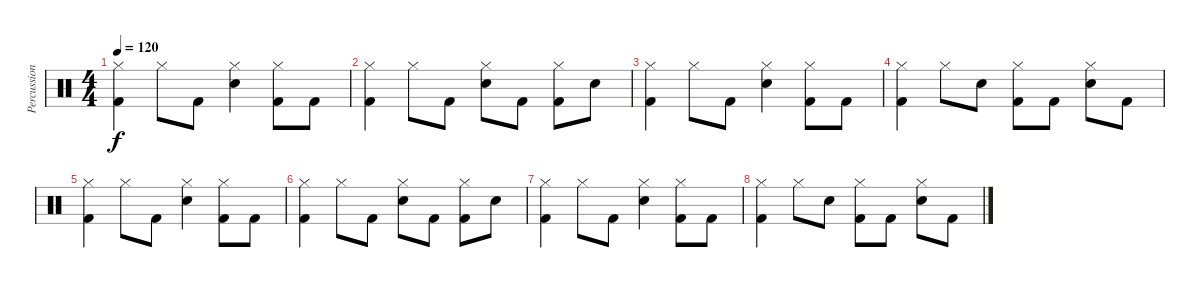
\track ("Percussions" "Percussion") {instrument percussion}
\staff {score}
\articulation defaults
\ts (4 4)
\tempo 120
\clef neutral
\ks c
("Hi-Hat (closed)" "Kick (hit) 2").4{dy f} "Hi-Hat (closed)".8 "Kick (hit) 2".8 ("Hi-Hat (closed)" "Snare (hit) 2").4 ("Hi-Hat (closed)" "Kick (hit) 2").8 "Kick (hit) 2".8 |
("Hi-Hat (closed)" "Kick (hit) 2").4 "Hi-Hat (closed)".8 "Kick (hit) 2".8 ("Hi-Hat (closed)" "Snare (hit) 2").8 "Kick (hit) 2".8 ("Hi-Hat (closed)" "Kick (hit) 2").8 "Snare (hit) 2".8 |
("Hi-Hat (closed)" "Kick (hit) 2").4 "Hi-Hat (closed)".8 "Kick (hit) 2".8 ("Hi-Hat (closed)" "Snare (hit) 2").4 ("Hi-Hat (closed)" "Kick (hit) 2").8 "Kick (hit) 2".8 |
("Hi-Hat (closed)" "Kick (hit) 2").4 "Hi-Hat (closed)".8 "Snare (hit) 2".8 ("Hi-Hat (closed)" "Kick (hit) 2").8 "Kick (hit) 2".8 ("Hi-Hat (closed)" "Snare (hit) 2").8 "Kick (hit) 2".8 |
("Hi-Hat (closed)" "Kick (hit) 2").4 "Hi-Hat (closed)".8 "Kick (hit) 2".8 ("Hi-Hat (closed)" "Snare (hit) 2").4 ("Hi-Hat (closed)" "Kick (hit) 2").8 "Kick (hit) 2".8 |
("Hi-Hat (closed)" "Kick (hit) 2").4 "Hi-Hat (closed)".8 "Kick (hit) 2".8 ("Hi-Hat (closed)" "Snare (hit) 2").8 "Kick (hit) 2".8 ("Hi-Hat (closed)" "Kick (hit) 2").8 "Snare (hit) 2".8 |
("Hi-Hat (closed)" "Kick (hit) 2").4 "Hi-Hat (closed)".8 "Kick (hit) 2".8 ("Hi-Hat (closed)" "Snare (hit) 2").4 ("Hi-Hat (closed)" "Kick (hit) 2").8 "Kick (hit) 2".8 |
("Hi-Hat (closed)" "Kick (hit) 2").4 "Hi-Hat (closed)".8 "Snare (hit) 2".8 ("Hi-Hat (closed)" "Kick (hit) 2").8 "Kick (hit) 2".8 ("Hi-Hat (closed)" "Snare (hit) 2").8 "Kick (hit) 2".8
